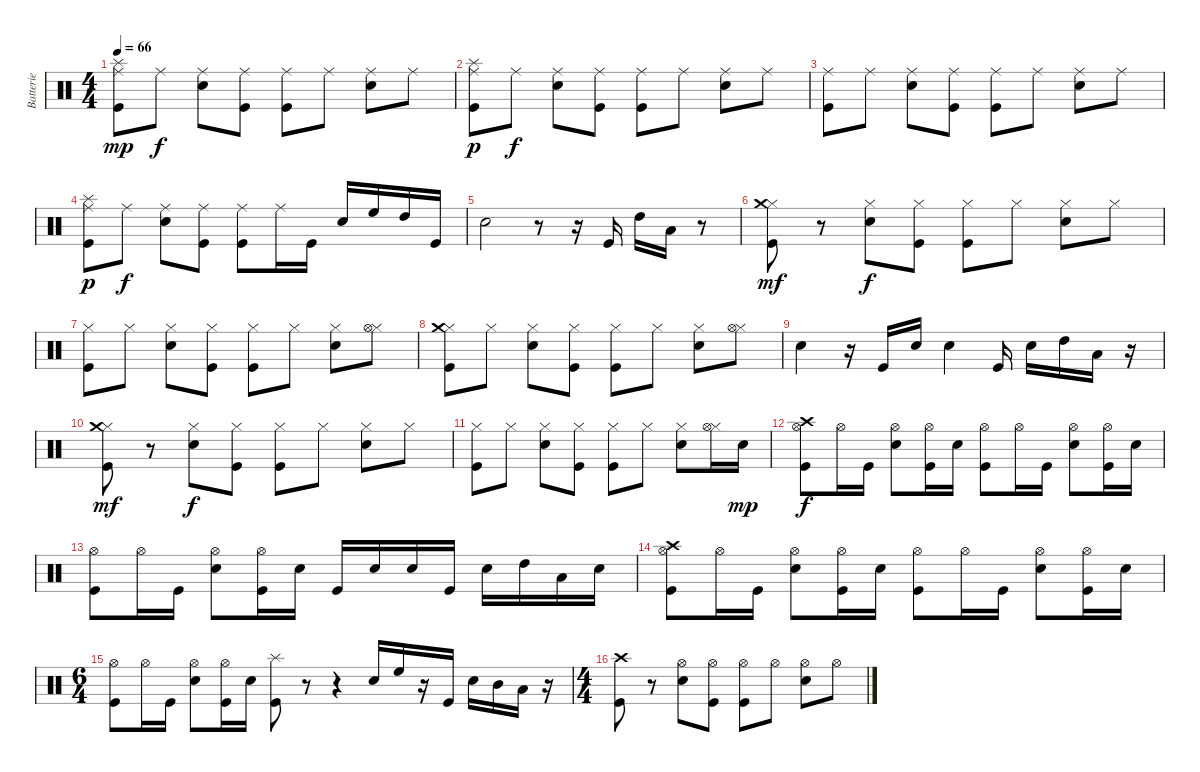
\track ("Batterie" "Batterie") {instrument percussion}
\staff {score}
\articulation defaults
\ts (4 4)
\tempo 66
\clef neutral
\ks c
("Ride (middle)" "Splash (hit)" "Kick (hit)").8{dy mp} "Ride (middle)".8{dy f} ("Ride (middle)" "Snare (hit) 2").8 ("Ride (middle)" "Kick (hit)").8 ("Ride (middle)" "Kick (hit)").8 "Ride (middle)".8 ("Ride (middle)" "Snare (hit) 2").8 "Ride (middle)".8 |
("Ride (middle)" "Splash (hit)" "Kick (hit)").8{dy p} "Ride (middle)".8{dy f} ("Ride (middle)" "Snare (hit) 2").8 ("Ride (middle)" "Kick (hit)").8 ("Ride (middle)" "Kick (hit)").8 "Ride (middle)".8 ("Ride (middle)" "Snare (hit) 2").8 "Ride (middle)".8 |
("Ride (middle)" "Kick (hit)").8 "Ride (middle)".8 ("Ride (middle)" "Snare (hit) 2").8 ("Ride (middle)" "Kick (hit)").8 ("Ride (middle)" "Kick (hit)").8 "Ride (middle)".8 ("Ride (middle)" "Snare (hit) 2").8 "Ride (middle)".8 |
("Ride (middle)" "Splash (hit)" "Kick (hit)").8{dy p} "Ride (middle)".8{dy f} ("Ride (middle)" "Snare (hit) 2").8 ("Ride (middle)" "Kick (hit)").8 ("Ride (middle)" "Kick (hit)").8 "Ride (middle)".16 "Kick (hit)".16 "Snare (hit) 2".16 "High Floor Tom (hit)".16 "High Tom (hit)".16 "Kick (hit)".16 |
"Snare (hit) 2".2 r.8 r.16 "Kick (hit)".16 "High Tom (hit)".16 "Low Tom (hit)".16 r.8 |
("Hi-Hat (closed)" "Crash medium (hit)" "Kick (hit)").8{dy mf} r.8 ("Hi-Hat (closed)" "Snare (hit) 2").8{dy f} ("Hi-Hat (closed)" "Kick (hit)").8 ("Hi-Hat (closed)" "Kick (hit)").8 "Hi-Hat (closed)".8 ("Hi-Hat (closed)" "Snare (hit) 2").8 "Hi-Hat (closed)".8 |
("Hi-Hat (closed)" "Kick (hit)").8 "Hi-Hat (closed)".8 ("Hi-Hat (closed)" "Snare (hit) 2").8 ("Hi-Hat (closed)" "Kick (hit)").8 ("Hi-Hat (closed)" "Kick (hit)").8 "Hi-Hat (closed)".8 ("Hi-Hat (closed)" "Snare (hit) 2").8 ("Hi-Hat (closed)" "Hi-Hat (open)").8 |
("Hi-Hat (closed)" "Crash medium (hit)" "Kick (hit)").8 "Hi-Hat (closed)".8 ("Hi-Hat (closed)" "Snare (hit) 2").8 ("Hi-Hat (closed)" "Kick (hit)").8 ("Hi-Hat (closed)" "Kick (hit)").8 "Hi-Hat (closed)".8 ("Hi-Hat (closed)" "Snare (hit) 2").8 ("Hi-Hat (closed)" "Hi-Hat (open)").8 |
"Snare (hit) 2".4 r.16 "Kick (hit)".16 "Snare (hit) 2".16 "Snare (hit) 2".4 "Kick (hit)".16 "Snare (hit) 2".16 "High Tom (hit)".16 "Low Tom (hit)".16 r.16 |
("Hi-Hat (closed)" "Crash medium (hit)" "Kick (hit)").8{dy mf} r.8 ("Hi-Hat (closed)" "Snare (hit) 2").8{dy f} ("Hi-Hat (closed)" "Kick (hit)").8 ("Hi-Hat (closed)" "Kick (hit)").8 "Hi-Hat (closed)".8 ("Hi-Hat (closed)" "Snare (hit) 2").8 "Hi-Hat (closed)".8 |
("Hi-Hat (closed)" "Kick (hit)").8 "Hi-Hat (closed)".8 ("Hi-Hat (closed)" "Snare (hit) 2").8 ("Hi-Hat (closed)" "Kick (hit)").8 ("Hi-Hat (closed)" "Kick (hit)").8 "Hi-Hat (closed)".8 ("Hi-Hat (closed)" "Snare (hit) 2").8 ("Hi-Hat (closed)" "Hi-Hat (open)").16 "Snare (hit) 2".16{dy mp} |
("Hi-Hat (open)" "Crash high (hit)" "Kick (hit)").8{dy f} "Hi-Hat (open)".16 "Kick (hit)".16 ("Hi-Hat (open)" "Snare (hit) 2").8 ("Hi-Hat (open)" "Kick (hit)").16 "Snare (hit) 2".16 ("Hi-Hat (open)" "Kick (hit)").8 "Hi-Hat (open)".16 "Kick (hit)".16 ("Hi-Hat (open)" "Snare (hit) 2").8 ("Hi-Hat (open)" "Kick (hit)").16 "Snare (hit) 2".16 |
("Hi-Hat (open)" "Kick (hit)").8 "Hi-Hat (open)".16 "Kick (hit)".16 ("Hi-Hat (open)" "Snare (hit) 2").8 ("Hi-Hat (open)" "Kick (hit)").16 "Snare (hit) 2".16 "Kick (hit)".16 "Snare (hit) 2".16 "Snare (hit) 2".16 "Kick (hit)".16 "Snare (hit) 2".16 "High Tom (hit)".16 "Low Tom (hit)".16 "Snare (hit) 2".16 |
("Hi-Hat (open)" "Crash high (hit)" "Kick (hit)").8 "Hi-Hat (open)".16 "Kick (hit)".16 ("Hi-Hat (open)" "Snare (hit) 2").8 ("Hi-Hat (open)" "Kick (hit)").16 "Snare (hit) 2".16 ("Hi-Hat (open)" "Kick (hit)").8 "Hi-Hat (open)".16 "Kick (hit)".16 ("Hi-Hat (open)" "Snare (hit) 2").8 ("Hi-Hat (open)" "Kick (hit)").16 "Snare (hit) 2".16 |
\ts (6 4)
("Hi-Hat (open)" "Kick (hit)").8 "Hi-Hat (open)".16 "Kick (hit)".16 ("Hi-Hat (open)" "Snare (hit) 2").8 ("Hi-Hat (open)" "Kick (hit)").16 "Snare (hit) 2".16 ("Splash (hit)" "Kick (hit)").8 r.8 r.4 "Snare (hit) 2".16 "High Floor Tom (hit)".16 r.16 "Kick (hit)".16 "Snare (hit) 2".16 "Mid Tom (hit)".16 "Low Tom (hit)".16 r.16 |
\ts (4 4)
("Crash high (hit)" "Kick (hit)").8 r.8 ("Hi-Hat (open)" "Snare (hit) 2").8 ("Hi-Hat (open)" "Kick (hit)").8 ("Hi-Hat (open)" "Kick (hit)").8 "Hi-Hat (open)".8 ("Hi-Hat (open)" "Snare (hit) 2").8 "Hi-Hat (open)".8
